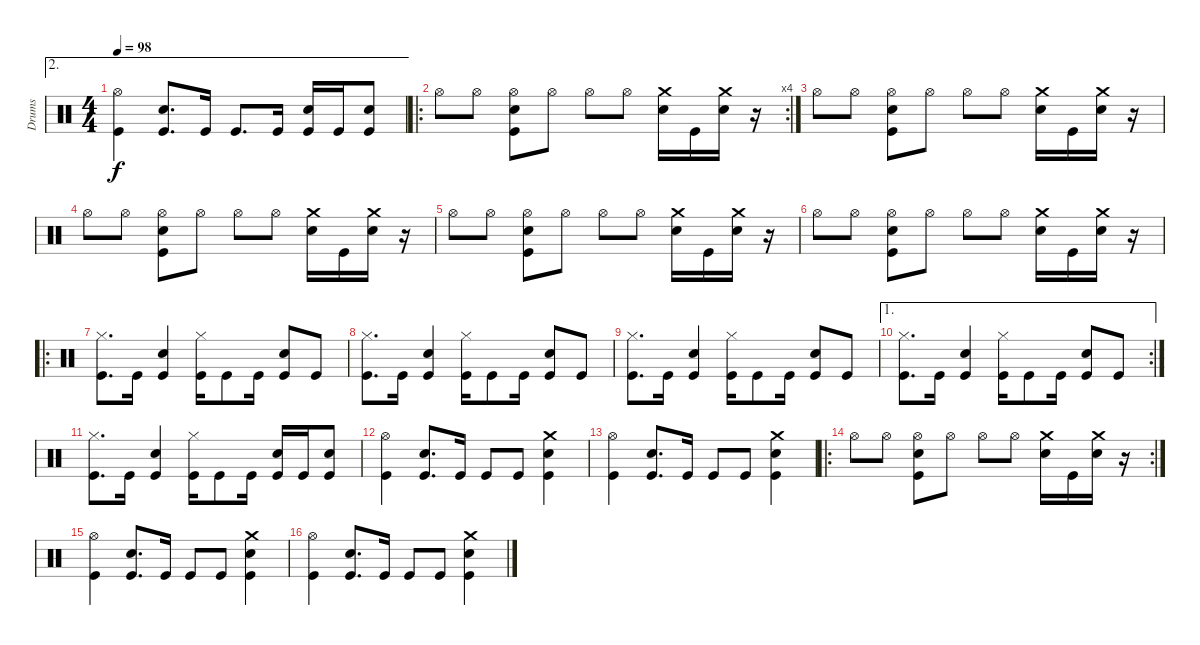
\track ("Drums" "Drums") {instrument percussion}
\staff {score}
\articulation defaults
\ae 2
\ts (4 4)
\tempo 98
\clef neutral
\ks c
("Hi-Hat (open)" "Kick (hit)").4{dy f} ("Snare (hit) 2" "Kick (hit)").8{d} "Kick (hit)".16 "Kick (hit)".8{d} "Kick (hit)".16 ("Snare (hit) 2" "Kick (hit)").16 "Kick (hit)".16 ("Snare (hit) 2" "Kick (hit)").8 |
\ro
\rc 4 "Hi-Hat (open)".8 "Hi-Hat (open)".8
("Snare (hit) 2" "Hi-Hat (open)" "Kick (hit)").8 "Hi-Hat (open)".8 "Hi-Hat (open)".8 "Hi-Hat (open)".8 ("Crash medium (hit)" "Snare (hit) 2").16 "Kick (hit)".16 ("Crash medium (hit)" "Snare (hit) 2").16 r.16 |
"Hi-Hat (open)".8 "Hi-Hat (open)".8 ("Snare (hit) 2" "Hi-Hat (open)" "Kick (hit)").8 "Hi-Hat (open)".8 "Hi-Hat (open)".8 "Hi-Hat (open)".8 ("Crash medium (hit)" "Snare (hit) 2").16 "Kick (hit)".16 ("Crash medium (hit)" "Snare (hit) 2").16 r.16 |
"Hi-Hat (open)".8 "Hi-Hat (open)".8 ("Snare (hit) 2" "Hi-Hat (open)" "Kick (hit)").8 "Hi-Hat (open)".8 "Hi-Hat (open)".8 "Hi-Hat (open)".8 ("Crash medium (hit)" "Snare (hit) 2").16 "Kick (hit)".16 ("Crash medium (hit)" "Snare (hit) 2").16 r.16 |
"Hi-Hat (open)".8 "Hi-Hat (open)".8 ("Snare (hit) 2" "Hi-Hat (open)" "Kick (hit)").8 "Hi-Hat (open)".8 "Hi-Hat (open)".8 "Hi-Hat (open)".8 ("Crash medium (hit)" "Snare (hit) 2").16 "Kick (hit)".16 ("Crash medium (hit)" "Snare (hit) 2").16 r.16 |
"Hi-Hat (open)".8 "Hi-Hat (open)".8 ("Snare (hit) 2" "Hi-Hat (open)" "Kick (hit)").8 "Hi-Hat (open)".8 "Hi-Hat (open)".8 "Hi-Hat (open)".8 ("Crash medium (hit)" "Snare (hit) 2").16 "Kick (hit)".16 ("Crash medium (hit)" "Snare (hit) 2").16 r.16 |
\ro
("Hi-Hat (closed)" "Kick (hit)").8{d} "Kick (hit)".16 ("Snare (hit) 2" "Kick (hit)").4 ("Hi-Hat (closed)" "Kick (hit)").16 "Kick (hit)".8 "Kick (hit)".16 ("Snare (hit) 2" "Kick (hit)").8 "Kick (hit)".8 |
("Hi-Hat (closed)" "Kick (hit)").8{d} "Kick (hit)".16 ("Snare (hit) 2" "Kick (hit)").4 ("Hi-Hat (closed)" "Kick (hit)").16 "Kick (hit)".8 "Kick (hit)".16 ("Snare (hit) 2" "Kick (hit)").8 "Kick (hit)".8 |
("Hi-Hat (closed)" "Kick (hit)").8{d} "Kick (hit)".16 ("Snare (hit) 2" "Kick (hit)").4 ("Hi-Hat (closed)" "Kick (hit)").16 "Kick (hit)".8 "Kick (hit)".16 ("Snare (hit) 2" "Kick (hit)").8 "Kick (hit)".8 |
\ae 1
\rc 2
("Hi-Hat (closed)" "Kick (hit)").8{d} "Kick (hit)".16 ("Snare (hit) 2" "Kick (hit)").4 ("Hi-Hat (closed)" "Kick (hit)").16 "Kick (hit)".8 "Kick (hit)".16 ("Snare (hit) 2" "Kick (hit)").8 "Kick (hit)".8 |
("Hi-Hat (closed)" "Kick (hit)").8{d} "Kick (hit)".16 ("Snare (hit) 2" "Kick (hit)").4 ("Hi-Hat (closed)" "Kick (hit)").16 "Kick (hit)".8 "Kick (hit)".16 ("Snare (hit) 2" "Kick (hit)").16 "Kick (hit)".16 ("Snare (hit) 2" "Kick (hit)").8 |
("Hi-Hat (open)" "Kick (hit)").4 ("Snare (hit) 2" "Kick (hit)").8{d} "Kick (hit)".16 "Kick (hit)".8 "Kick (hit)".8 ("Crash medium (hit)" "Snare (hit) 2" "Kick (hit)").4 |
("Hi-Hat (open)" "Kick (hit)").4 ("Snare (hit) 2" "Kick (hit)").8{d} "Kick (hit)".16 "Kick (hit)".8 "Kick (hit)".8 ("Crash medium (hit)" "Snare (hit) 2" "Kick (hit)").4 |
\ro
\rc 2 "Hi-Hat (open)".8 "Hi-Hat (open)".8
("Snare (hit) 2" "Hi-Hat (open)" "Kick (hit)").8 "Hi-Hat (open)".8 "Hi-Hat (open)".8 "Hi-Hat (open)".8 ("Crash medium (hit)" "Snare (hit) 2").16 "Kick (hit)".16 ("Crash medium (hit)" "Snare (hit) 2").16 r.16 |
("Hi-Hat (open)" "Kick (hit)").4 ("Snare (hit) 2" "Kick (hit)").8{d} "Kick (hit)".16 "Kick (hit)".8 "Kick (hit)".8 ("Crash medium (hit)" "Snare (hit) 2" "Kick (hit)").4 |
("Hi-Hat (open)" "Kick (hit)").4 ("Snare (hit) 2" "Kick (hit)").8{d} "Kick (hit)".16 "Kick (hit)".8 "Kick (hit)".8 ("Crash medium (hit)" "Snare (hit) 2" "Kick (hit)").4
